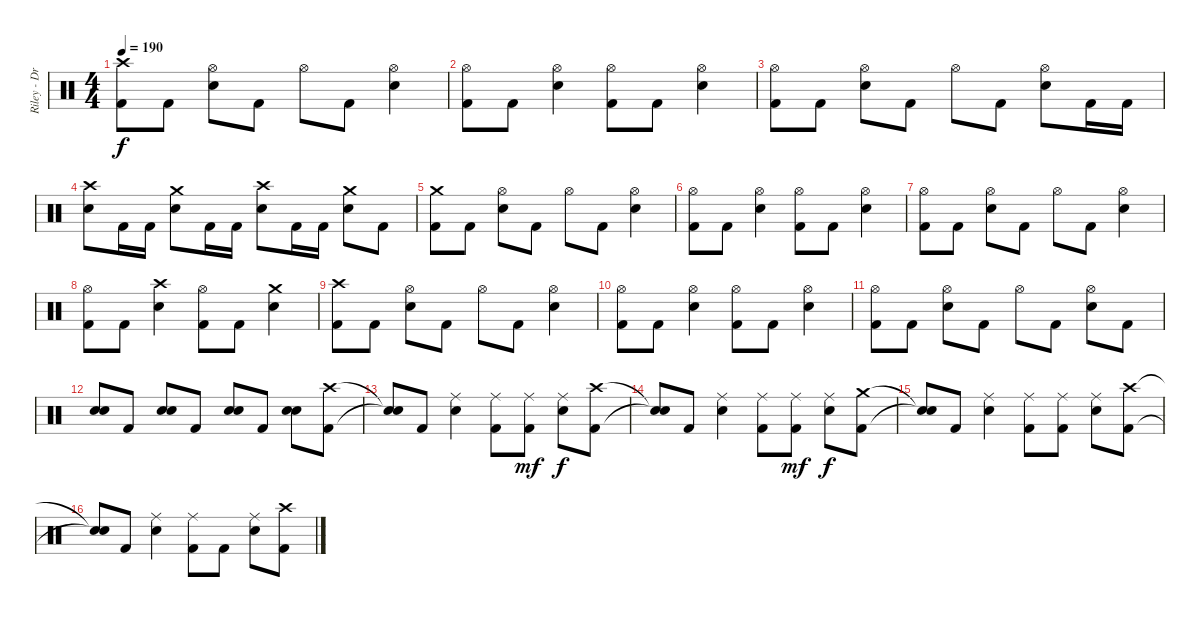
\track ("Riley - Drums" "Riley - Dr") {instrument percussion}
\staff {score}
\articulation defaults
\ts (4 4)
\tempo 190
\clef neutral
\ks c
("Kick (hit) 2" "Crash high (hit)").8{dy f} "Kick (hit) 2".8 ("Electric Snare (hit)" "Hi-Hat (open)").8 "Kick (hit) 2".8 "Hi-Hat (open)".8 "Kick (hit) 2".8 ("Electric Snare (hit)" "Hi-Hat (open)").4 |
("Kick (hit) 2" "Hi-Hat (open)").8 "Kick (hit) 2".8 ("Electric Snare (hit)" "Hi-Hat (open)").4 ("Kick (hit) 2" "Hi-Hat (open)").8 "Kick (hit) 2".8 ("Electric Snare (hit)" "Hi-Hat (open)").4 |
("Kick (hit) 2" "Hi-Hat (open)").8 "Kick (hit) 2".8 ("Electric Snare (hit)" "Hi-Hat (open)").8 "Kick (hit) 2".8 "Hi-Hat (open)".8 "Kick (hit) 2".8 ("Electric Snare (hit)" "Hi-Hat (open)").8 "Kick (hit) 2".16 "Kick (hit) 2".16 |
("Electric Snare (hit)" "Crash high (hit)").8 "Kick (hit) 2".16 "Kick (hit) 2".16 ("Electric Snare (hit)" "Crash medium (hit)").8 "Kick (hit) 2".16 "Kick (hit) 2".16 ("Electric Snare (hit)" "Crash high (hit)").8 "Kick (hit) 2".16 "Kick (hit) 2".16 ("Electric Snare (hit)" "Crash medium (hit)").8 "Kick (hit) 2".8 |
("Kick (hit) 2" "Crash medium (hit)").8 "Kick (hit) 2".8 ("Electric Snare (hit)" "Hi-Hat (open)").8 "Kick (hit) 2".8 "Hi-Hat (open)".8 "Kick (hit) 2".8 ("Electric Snare (hit)" "Hi-Hat (open)").4 |
("Kick (hit) 2" "Hi-Hat (open)").8 "Kick (hit) 2".8 ("Electric Snare (hit)" "Hi-Hat (open)").4 ("Kick (hit) 2" "Hi-Hat (open)").8 "Kick (hit) 2".8 ("Electric Snare (hit)" "Hi-Hat (open)").4 |
("Kick (hit) 2" "Hi-Hat (open)").8 "Kick (hit) 2".8 ("Electric Snare (hit)" "Hi-Hat (open)").8 "Kick (hit) 2".8 "Hi-Hat (open)".8 "Kick (hit) 2".8 ("Electric Snare (hit)" "Hi-Hat (open)").4 |
("Kick (hit) 2" "Hi-Hat (open)").8 "Kick (hit) 2".8 ("Electric Snare (hit)" "Crash high (hit)").4 ("Kick (hit) 2" "Hi-Hat (open)").8 "Kick (hit) 2".8 ("Electric Snare (hit)" "Crash medium (hit)").4 |
("Kick (hit) 2" "Crash high (hit)").8 "Kick (hit) 2".8 ("Electric Snare (hit)" "Hi-Hat (open)").8 "Kick (hit) 2".8 "Hi-Hat (open)".8 "Kick (hit) 2".8 ("Electric Snare (hit)" "Hi-Hat (open)").4 |
("Kick (hit) 2" "Hi-Hat (open)").8 "Kick (hit) 2".8 ("Electric Snare (hit)" "Hi-Hat (open)").4 ("Kick (hit) 2" "Hi-Hat (open)").8 "Kick (hit) 2".8 ("Electric Snare (hit)" "Hi-Hat (open)").4 |
("Kick (hit) 2" "Hi-Hat (open)").8 "Kick (hit) 2".8 ("Electric Snare (hit)" "Hi-Hat (open)").8 "Kick (hit) 2".8 "Hi-Hat (open)".8 "Kick (hit) 2".8 ("Electric Snare (hit)" "Hi-Hat (open)").8 "Kick (hit) 2".8 |
("Electric Snare (hit)" "Electric Snare (hit)").8 "Kick (hit) 2".8 ("Electric Snare (hit)" "Electric Snare (hit)").8 "Kick (hit) 2".8 ("Electric Snare (hit)" "Electric Snare (hit)").8 "Kick (hit) 2".8 ("Electric Snare (hit)" "Electric Snare (hit)").8 ("Kick (hit) 2" "Crash high (hit)").8 |
("Snare (hit)"{t} "Snare (hit)"{t}).8 "Kick (hit) 2".8 ("Electric Snare (hit)" "Ride (middle)").4 ("Kick (hit) 2" "Ride (middle)").8 ("Kick (hit) 2" "Ride (middle)").8{dy mf} ("Electric Snare (hit)" "Ride (middle)").8{dy f} ("Kick (hit) 2" "Crash high (hit)").8 |
("Snare (hit)"{t} "Snare (hit)"{t}).8 "Kick (hit) 2".8 ("Electric Snare (hit)" "Ride (middle)").4 ("Kick (hit) 2" "Ride (middle)").8 ("Kick (hit) 2" "Ride (middle)").8{dy mf} ("Electric Snare (hit)" "Ride (middle)").8{dy f} ("Kick (hit) 2" "Crash medium (hit)").8 |
("Snare (hit)"{t} "Snare (hit)"{t}).8 "Kick (hit) 2".8 ("Electric Snare (hit)" "Ride (middle)").4 ("Kick (hit) 2" "Ride (middle)").8 ("Kick (hit) 2" "Ride (middle)").8 ("Electric Snare (hit)" "Ride (middle)").8 ("Kick (hit) 2" "Crash high (hit)").8 |
("Snare (hit)"{t} "Snare (hit)"{t}).8 "Kick (hit) 2".8 ("Electric Snare (hit)" "Ride (middle)").4 ("Kick (hit) 2" "Ride (middle)").8 "Kick (hit) 2".8 ("Electric Snare (hit)" "Ride (middle)").8 ("Kick (hit) 2" "Crash high (hit)").8
